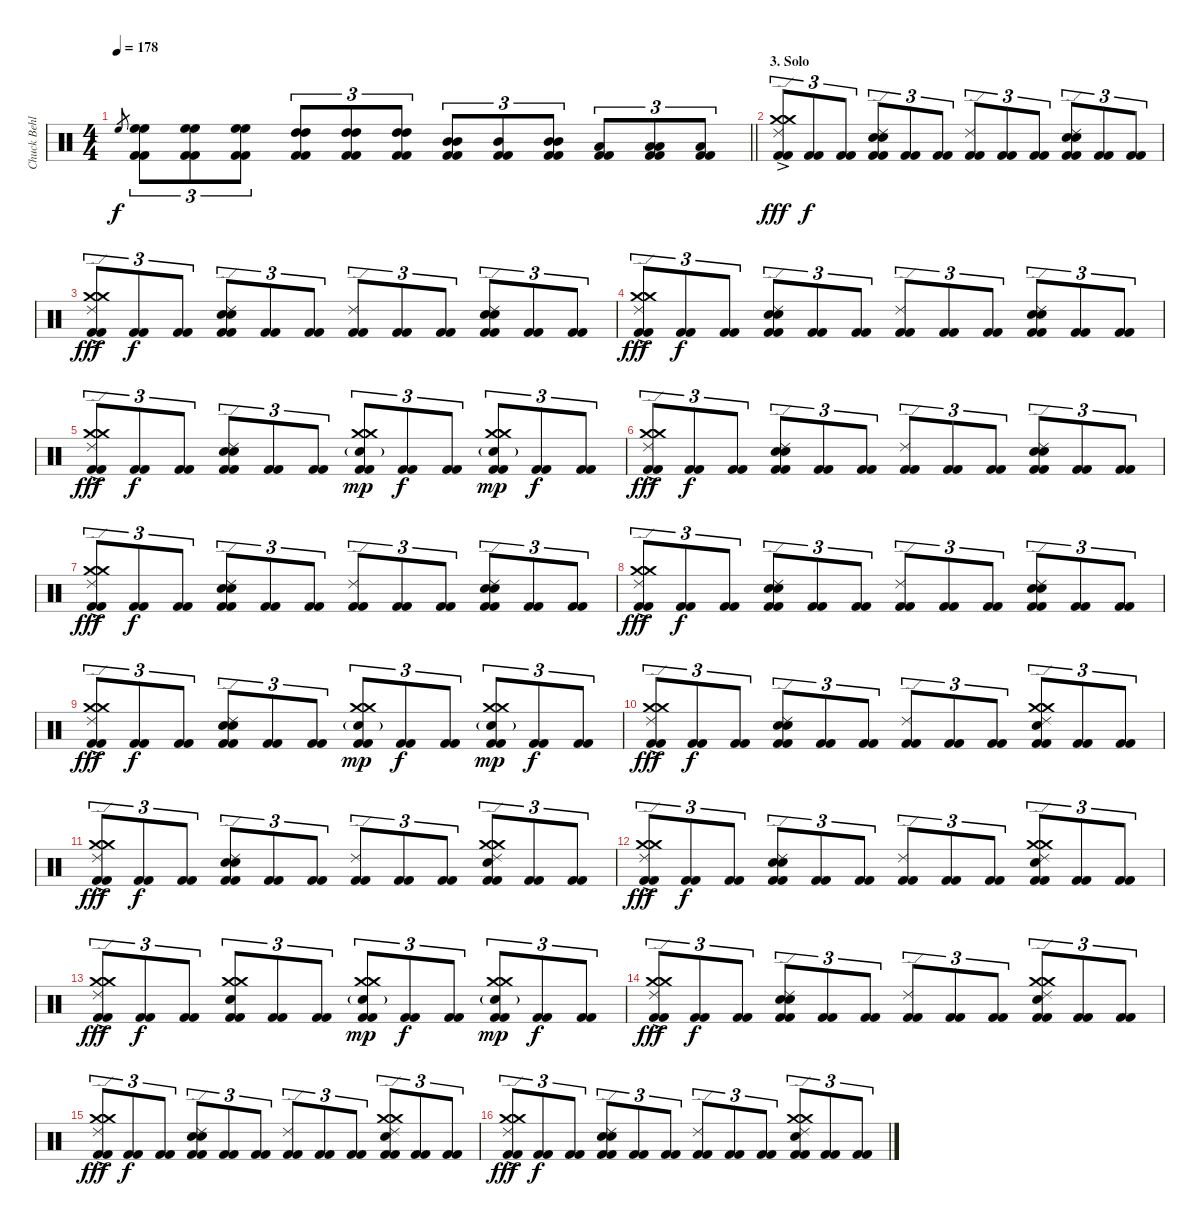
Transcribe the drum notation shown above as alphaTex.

\track ("Chuck Behler" "Chuck Behl") {instrument percussion}
\staff {score}
\articulation defaults
\ts (4 4)
\tempo 178
\clef neutral
\barLineRight lightlight
\ks c "High Floor Tom (hit)".8{gr dy f}
("High Floor Tom (hit)" "High Floor Tom (hit)" "Kick (hit) 2" "Kick (hit) 2").8{tu (3 2)} ("High Floor Tom (hit)" "High Floor Tom (hit)" "Kick (hit) 2" "Kick (hit) 2").8{tu (3 2)} ("High Floor Tom (hit)" "High Floor Tom (hit)" "Kick (hit) 2" "Kick (hit) 2").8{tu (3 2)} ("High Tom (hit)" "High Tom (hit)" "Kick (hit) 2" "Kick (hit) 2").8{tu (3 2)} ("High Tom (hit)" "High Tom (hit)" "Kick (hit) 2" "Kick (hit) 2").8{tu (3 2)} ("High Tom (hit)" "High Tom (hit)" "Kick (hit) 2" "Kick (hit) 2").8{tu (3 2)} ("Mid Tom (hit)" "Mid Tom (hit)" "Kick (hit) 2" "Kick (hit) 2").8{tu (3 2)} ("Mid Tom (hit)" "Kick (hit) 2" "Kick (hit) 2").8{tu (3 2)} ("Mid Tom (hit)" "Mid Tom (hit)" "Kick (hit) 2" "Kick (hit) 2").8{tu (3 2)} ("Low Tom (hit)" "Kick (hit) 2" "Kick (hit) 2").8{tu (3 2)} ("Low Tom (hit)" "Low Tom (hit)" "Kick (hit) 2" "Kick (hit) 2").8{tu (3 2)} ("Low Tom (hit)" "Kick (hit) 2" "Kick (hit) 2").8{tu (3 2)} |
\section ("" "3. Solo")
("Crash medium (hit)"{ac} "Crash medium (hit)"{ac} "Ride (edge) 2" "Kick (hit) 2" "Kick (hit) 2").8{tu (3 2) dy fff} ("Kick (hit) 2" "Kick (hit) 2").8{tu (3 2) dy f} ("Kick (hit) 2" "Kick (hit) 2").8{tu (3 2)} ("Ride (edge) 2" "Snare (hit) 2" "Electric Snare (hit)" "Kick (hit) 2" "Kick (hit) 2").8{tu (3 2)} ("Kick (hit) 2" "Kick (hit) 2").8{tu (3 2)} ("Kick (hit) 2" "Kick (hit) 2").8{tu (3 2)} ("Ride (edge) 2" "Kick (hit) 2" "Kick (hit) 2").8{tu (3 2)} ("Kick (hit) 2" "Kick (hit) 2").8{tu (3 2)} ("Kick (hit) 2" "Kick (hit) 2").8{tu (3 2)} ("Ride (edge) 2" "Snare (hit) 2" "Electric Snare (hit)" "Kick (hit) 2" "Kick (hit) 2").8{tu (3 2)} ("Kick (hit) 2" "Kick (hit) 2").8{tu (3 2)} ("Kick (hit) 2" "Kick (hit) 2").8{tu (3 2)} |
("Crash medium (hit)"{ac} "Crash medium (hit)"{ac} "Ride (edge) 2" "Kick (hit) 2" "Kick (hit) 2").8{tu (3 2) dy fff} ("Kick (hit) 2" "Kick (hit) 2").8{tu (3 2) dy f} ("Kick (hit) 2" "Kick (hit) 2").8{tu (3 2)} ("Ride (edge) 2" "Snare (hit) 2" "Electric Snare (hit)" "Kick (hit) 2" "Kick (hit) 2").8{tu (3 2)} ("Kick (hit) 2" "Kick (hit) 2").8{tu (3 2)} ("Kick (hit) 2" "Kick (hit) 2").8{tu (3 2)} ("Ride (edge) 2" "Kick (hit) 2" "Kick (hit) 2").8{tu (3 2)} ("Kick (hit) 2" "Kick (hit) 2").8{tu (3 2)} ("Kick (hit) 2" "Kick (hit) 2").8{tu (3 2)} ("Ride (edge) 2" "Snare (hit) 2" "Electric Snare (hit)" "Kick (hit) 2" "Kick (hit) 2").8{tu (3 2)} ("Kick (hit) 2" "Kick (hit) 2").8{tu (3 2)} ("Kick (hit) 2" "Kick (hit) 2").8{tu (3 2)} |
("Crash medium (hit)"{ac} "Crash medium (hit)"{ac} "Ride (edge) 2" "Kick (hit) 2" "Kick (hit) 2").8{tu (3 2) dy fff} ("Kick (hit) 2" "Kick (hit) 2").8{tu (3 2) dy f} ("Kick (hit) 2" "Kick (hit) 2").8{tu (3 2)} ("Ride (edge) 2" "Snare (hit) 2" "Electric Snare (hit)" "Kick (hit) 2" "Kick (hit) 2").8{tu (3 2)} ("Kick (hit) 2" "Kick (hit) 2").8{tu (3 2)} ("Kick (hit) 2" "Kick (hit) 2").8{tu (3 2)} ("Ride (edge) 2" "Kick (hit) 2" "Kick (hit) 2").8{tu (3 2)} ("Kick (hit) 2" "Kick (hit) 2").8{tu (3 2)} ("Kick (hit) 2" "Kick (hit) 2").8{tu (3 2)} ("Ride (edge) 2" "Snare (hit) 2" "Electric Snare (hit)" "Kick (hit) 2" "Kick (hit) 2").8{tu (3 2)} ("Kick (hit) 2" "Kick (hit) 2").8{tu (3 2)} ("Kick (hit) 2" "Kick (hit) 2").8{tu (3 2)} |
("Crash medium (hit)"{ac} "Crash medium (hit)"{ac} "Ride (edge) 2" "Kick (hit) 2" "Kick (hit) 2").8{tu (3 2) dy fff} ("Kick (hit) 2" "Kick (hit) 2").8{tu (3 2) dy f} ("Kick (hit) 2" "Kick (hit) 2").8{tu (3 2)} ("Ride (edge) 2" "Snare (hit) 2" "Electric Snare (hit)" "Kick (hit) 2" "Kick (hit) 2").8{tu (3 2)} ("Kick (hit) 2" "Kick (hit) 2").8{tu (3 2)} ("Kick (hit) 2" "Kick (hit) 2").8{tu (3 2)} ("Crash medium (hit)" "Crash medium (hit)" "Snare (hit) 2"{g} "Kick (hit) 2" "Kick (hit) 2").8{tu (3 2) dy mp} ("Kick (hit) 2" "Kick (hit) 2").8{tu (3 2) dy f} ("Kick (hit) 2" "Kick (hit) 2").8{tu (3 2)} ("Crash medium (hit)" "Crash medium (hit)" "Snare (hit) 2"{g} "Kick (hit) 2" "Kick (hit) 2").8{tu (3 2) dy mp} ("Kick (hit) 2" "Kick (hit) 2").8{tu (3 2) dy f} ("Kick (hit) 2" "Kick (hit) 2").8{tu (3 2)} |
("Crash medium (hit)"{ac} "Crash medium (hit)"{ac} "Ride (edge) 2" "Kick (hit) 2" "Kick (hit) 2").8{tu (3 2) dy fff} ("Kick (hit) 2" "Kick (hit) 2").8{tu (3 2) dy f} ("Kick (hit) 2" "Kick (hit) 2").8{tu (3 2)} ("Ride (edge) 2" "Snare (hit) 2" "Electric Snare (hit)" "Kick (hit) 2" "Kick (hit) 2").8{tu (3 2)} ("Kick (hit) 2" "Kick (hit) 2").8{tu (3 2)} ("Kick (hit) 2" "Kick (hit) 2").8{tu (3 2)} ("Ride (edge) 2" "Kick (hit) 2" "Kick (hit) 2").8{tu (3 2)} ("Kick (hit) 2" "Kick (hit) 2").8{tu (3 2)} ("Kick (hit) 2" "Kick (hit) 2").8{tu (3 2)} ("Ride (edge) 2" "Snare (hit) 2" "Electric Snare (hit)" "Kick (hit) 2" "Kick (hit) 2").8{tu (3 2)} ("Kick (hit) 2" "Kick (hit) 2").8{tu (3 2)} ("Kick (hit) 2" "Kick (hit) 2").8{tu (3 2)} |
("Crash medium (hit)"{ac} "Crash medium (hit)"{ac} "Ride (edge) 2" "Kick (hit) 2" "Kick (hit) 2").8{tu (3 2) dy fff} ("Kick (hit) 2" "Kick (hit) 2").8{tu (3 2) dy f} ("Kick (hit) 2" "Kick (hit) 2").8{tu (3 2)} ("Ride (edge) 2" "Snare (hit) 2" "Electric Snare (hit)" "Kick (hit) 2" "Kick (hit) 2").8{tu (3 2)} ("Kick (hit) 2" "Kick (hit) 2").8{tu (3 2)} ("Kick (hit) 2" "Kick (hit) 2").8{tu (3 2)} ("Ride (edge) 2" "Kick (hit) 2" "Kick (hit) 2").8{tu (3 2)} ("Kick (hit) 2" "Kick (hit) 2").8{tu (3 2)} ("Kick (hit) 2" "Kick (hit) 2").8{tu (3 2)} ("Ride (edge) 2" "Snare (hit) 2" "Electric Snare (hit)" "Kick (hit) 2" "Kick (hit) 2").8{tu (3 2)} ("Kick (hit) 2" "Kick (hit) 2").8{tu (3 2)} ("Kick (hit) 2" "Kick (hit) 2").8{tu (3 2)} |
("Crash medium (hit)"{ac} "Crash medium (hit)"{ac} "Ride (edge) 2" "Kick (hit) 2" "Kick (hit) 2").8{tu (3 2) dy fff} ("Kick (hit) 2" "Kick (hit) 2").8{tu (3 2) dy f} ("Kick (hit) 2" "Kick (hit) 2").8{tu (3 2)} ("Ride (edge) 2" "Snare (hit) 2" "Electric Snare (hit)" "Kick (hit) 2" "Kick (hit) 2").8{tu (3 2)} ("Kick (hit) 2" "Kick (hit) 2").8{tu (3 2)} ("Kick (hit) 2" "Kick (hit) 2").8{tu (3 2)} ("Ride (edge) 2" "Kick (hit) 2" "Kick (hit) 2").8{tu (3 2)} ("Kick (hit) 2" "Kick (hit) 2").8{tu (3 2)} ("Kick (hit) 2" "Kick (hit) 2").8{tu (3 2)} ("Ride (edge) 2" "Snare (hit) 2" "Electric Snare (hit)" "Kick (hit) 2" "Kick (hit) 2").8{tu (3 2)} ("Kick (hit) 2" "Kick (hit) 2").8{tu (3 2)} ("Kick (hit) 2" "Kick (hit) 2").8{tu (3 2)} |
("Crash medium (hit)"{ac} "Crash medium (hit)"{ac} "Ride (edge) 2" "Kick (hit) 2" "Kick (hit) 2").8{tu (3 2) dy fff} ("Kick (hit) 2" "Kick (hit) 2").8{tu (3 2) dy f} ("Kick (hit) 2" "Kick (hit) 2").8{tu (3 2)} ("Ride (edge) 2" "Snare (hit) 2" "Electric Snare (hit)" "Kick (hit) 2" "Kick (hit) 2").8{tu (3 2)} ("Kick (hit) 2" "Kick (hit) 2").8{tu (3 2)} ("Kick (hit) 2" "Kick (hit) 2").8{tu (3 2)} ("Crash medium (hit)" "Crash medium (hit)" "Snare (hit) 2"{g} "Kick (hit) 2" "Kick (hit) 2").8{tu (3 2) dy mp} ("Kick (hit) 2" "Kick (hit) 2").8{tu (3 2) dy f} ("Kick (hit) 2" "Kick (hit) 2").8{tu (3 2)} ("Crash medium (hit)" "Crash medium (hit)" "Snare (hit) 2"{g} "Kick (hit) 2" "Kick (hit) 2").8{tu (3 2) dy mp} ("Kick (hit) 2" "Kick (hit) 2").8{tu (3 2) dy f} ("Kick (hit) 2" "Kick (hit) 2").8{tu (3 2)} |
("Crash medium (hit)"{ac} "Crash medium (hit)"{ac} "Ride (edge) 2" "Kick (hit) 2" "Kick (hit) 2").8{tu (3 2) dy fff} ("Kick (hit) 2" "Kick (hit) 2").8{tu (3 2) dy f} ("Kick (hit) 2" "Kick (hit) 2").8{tu (3 2)} ("Ride (edge) 2" "Snare (hit) 2" "Electric Snare (hit)" "Kick (hit) 2" "Kick (hit) 2").8{tu (3 2)} ("Kick (hit) 2" "Kick (hit) 2").8{tu (3 2)} ("Kick (hit) 2" "Kick (hit) 2").8{tu (3 2)} ("Ride (edge) 2" "Kick (hit) 2" "Kick (hit) 2").8{tu (3 2)} ("Kick (hit) 2" "Kick (hit) 2").8{tu (3 2)} ("Kick (hit) 2" "Kick (hit) 2").8{tu (3 2)} ("Crash medium (hit)" "Crash medium (hit)" "Electric Snare (hit)" "Ride (edge) 2" "Kick (hit) 2" "Kick (hit) 2").8{tu (3 2)} ("Kick (hit) 2" "Kick (hit) 2").8{tu (3 2)} ("Kick (hit) 2" "Kick (hit) 2").8{tu (3 2)} |
("Crash medium (hit)"{ac} "Crash medium (hit)"{ac} "Ride (edge) 2" "Kick (hit) 2" "Kick (hit) 2").8{tu (3 2) dy fff} ("Kick (hit) 2" "Kick (hit) 2").8{tu (3 2) dy f} ("Kick (hit) 2" "Kick (hit) 2").8{tu (3 2)} ("Ride (edge) 2" "Snare (hit) 2" "Electric Snare (hit)" "Kick (hit) 2" "Kick (hit) 2").8{tu (3 2)} ("Kick (hit) 2" "Kick (hit) 2").8{tu (3 2)} ("Kick (hit) 2" "Kick (hit) 2").8{tu (3 2)} ("Ride (edge) 2" "Kick (hit) 2" "Kick (hit) 2").8{tu (3 2)} ("Kick (hit) 2" "Kick (hit) 2").8{tu (3 2)} ("Kick (hit) 2" "Kick (hit) 2").8{tu (3 2)} ("Crash medium (hit)" "Crash medium (hit)" "Electric Snare (hit)" "Ride (edge) 2" "Kick (hit) 2" "Kick (hit) 2").8{tu (3 2)} ("Kick (hit) 2" "Kick (hit) 2").8{tu (3 2)} ("Kick (hit) 2" "Kick (hit) 2").8{tu (3 2)} |
("Crash medium (hit)"{ac} "Crash medium (hit)"{ac} "Ride (edge) 2" "Kick (hit) 2" "Kick (hit) 2").8{tu (3 2) dy fff} ("Kick (hit) 2" "Kick (hit) 2").8{tu (3 2) dy f} ("Kick (hit) 2" "Kick (hit) 2").8{tu (3 2)} ("Ride (edge) 2" "Snare (hit) 2" "Electric Snare (hit)" "Kick (hit) 2" "Kick (hit) 2").8{tu (3 2)} ("Kick (hit) 2" "Kick (hit) 2").8{tu (3 2)} ("Kick (hit) 2" "Kick (hit) 2").8{tu (3 2)} ("Ride (edge) 2" "Kick (hit) 2" "Kick (hit) 2").8{tu (3 2)} ("Kick (hit) 2" "Kick (hit) 2").8{tu (3 2)} ("Kick (hit) 2" "Kick (hit) 2").8{tu (3 2)} ("Crash medium (hit)" "Crash medium (hit)" "Electric Snare (hit)" "Ride (edge) 2" "Kick (hit) 2" "Kick (hit) 2").8{tu (3 2)} ("Kick (hit) 2" "Kick (hit) 2").8{tu (3 2)} ("Kick (hit) 2" "Kick (hit) 2").8{tu (3 2)} |
("Crash medium (hit)"{ac} "Crash medium (hit)"{ac} "Ride (edge) 2" "Kick (hit) 2" "Kick (hit) 2").8{tu (3 2) dy fff} ("Kick (hit) 2" "Kick (hit) 2").8{tu (3 2) dy f} ("Kick (hit) 2" "Kick (hit) 2").8{tu (3 2)} ("Crash medium (hit)" "Crash medium (hit)" "Electric Snare (hit)" "Kick (hit) 2" "Kick (hit) 2").8{tu (3 2)} ("Kick (hit) 2" "Kick (hit) 2").8{tu (3 2)} ("Kick (hit) 2" "Kick (hit) 2").8{tu (3 2)} ("Crash medium (hit)" "Crash medium (hit)" "Snare (hit) 2"{g} "Kick (hit) 2" "Kick (hit) 2").8{tu (3 2) dy mp} ("Kick (hit) 2" "Kick (hit) 2").8{tu (3 2) dy f} ("Kick (hit) 2" "Kick (hit) 2").8{tu (3 2)} ("Crash medium (hit)" "Crash medium (hit)" "Snare (hit) 2"{g} "Kick (hit) 2" "Kick (hit) 2").8{tu (3 2) dy mp} ("Kick (hit) 2" "Kick (hit) 2").8{tu (3 2) dy f} ("Kick (hit) 2" "Kick (hit) 2").8{tu (3 2)} |
("Crash medium (hit)"{ac} "Crash medium (hit)"{ac} "Ride (edge) 2" "Kick (hit) 2" "Kick (hit) 2").8{tu (3 2) dy fff} ("Kick (hit) 2" "Kick (hit) 2").8{tu (3 2) dy f} ("Kick (hit) 2" "Kick (hit) 2").8{tu (3 2)} ("Ride (edge) 2" "Snare (hit) 2" "Electric Snare (hit)" "Kick (hit) 2" "Kick (hit) 2").8{tu (3 2)} ("Kick (hit) 2" "Kick (hit) 2").8{tu (3 2)} ("Kick (hit) 2" "Kick (hit) 2").8{tu (3 2)} ("Ride (edge) 2" "Kick (hit) 2" "Kick (hit) 2").8{tu (3 2)} ("Kick (hit) 2" "Kick (hit) 2").8{tu (3 2)} ("Kick (hit) 2" "Kick (hit) 2").8{tu (3 2)} ("Crash medium (hit)" "Crash medium (hit)" "Electric Snare (hit)" "Ride (edge) 2" "Kick (hit) 2" "Kick (hit) 2").8{tu (3 2)} ("Kick (hit) 2" "Kick (hit) 2").8{tu (3 2)} ("Kick (hit) 2" "Kick (hit) 2").8{tu (3 2)} |
("Crash medium (hit)"{ac} "Crash medium (hit)"{ac} "Ride (edge) 2" "Kick (hit) 2" "Kick (hit) 2").8{tu (3 2) dy fff} ("Kick (hit) 2" "Kick (hit) 2").8{tu (3 2) dy f} ("Kick (hit) 2" "Kick (hit) 2").8{tu (3 2)} ("Ride (edge) 2" "Snare (hit) 2" "Electric Snare (hit)" "Kick (hit) 2" "Kick (hit) 2").8{tu (3 2)} ("Kick (hit) 2" "Kick (hit) 2").8{tu (3 2)} ("Kick (hit) 2" "Kick (hit) 2").8{tu (3 2)} ("Ride (edge) 2" "Kick (hit) 2" "Kick (hit) 2").8{tu (3 2)} ("Kick (hit) 2" "Kick (hit) 2").8{tu (3 2)} ("Kick (hit) 2" "Kick (hit) 2").8{tu (3 2)} ("Crash medium (hit)" "Crash medium (hit)" "Electric Snare (hit)" "Ride (edge) 2" "Kick (hit) 2" "Kick (hit) 2").8{tu (3 2)} ("Kick (hit) 2" "Kick (hit) 2").8{tu (3 2)} ("Kick (hit) 2" "Kick (hit) 2").8{tu (3 2)} |
("Crash medium (hit)"{ac} "Crash medium (hit)"{ac} "Ride (edge) 2" "Kick (hit) 2" "Kick (hit) 2").8{tu (3 2) dy fff} ("Kick (hit) 2" "Kick (hit) 2").8{tu (3 2) dy f} ("Kick (hit) 2" "Kick (hit) 2").8{tu (3 2)} ("Ride (edge) 2" "Snare (hit) 2" "Electric Snare (hit)" "Kick (hit) 2" "Kick (hit) 2").8{tu (3 2)} ("Kick (hit) 2" "Kick (hit) 2").8{tu (3 2)} ("Kick (hit) 2" "Kick (hit) 2").8{tu (3 2)} ("Ride (edge) 2" "Kick (hit) 2" "Kick (hit) 2").8{tu (3 2)} ("Kick (hit) 2" "Kick (hit) 2").8{tu (3 2)} ("Kick (hit) 2" "Kick (hit) 2").8{tu (3 2)} ("Crash medium (hit)" "Crash medium (hit)" "Electric Snare (hit)" "Ride (edge) 2" "Kick (hit) 2" "Kick (hit) 2").8{tu (3 2)} ("Kick (hit) 2" "Kick (hit) 2").8{tu (3 2)} ("Kick (hit) 2" "Kick (hit) 2").8{tu (3 2)}
